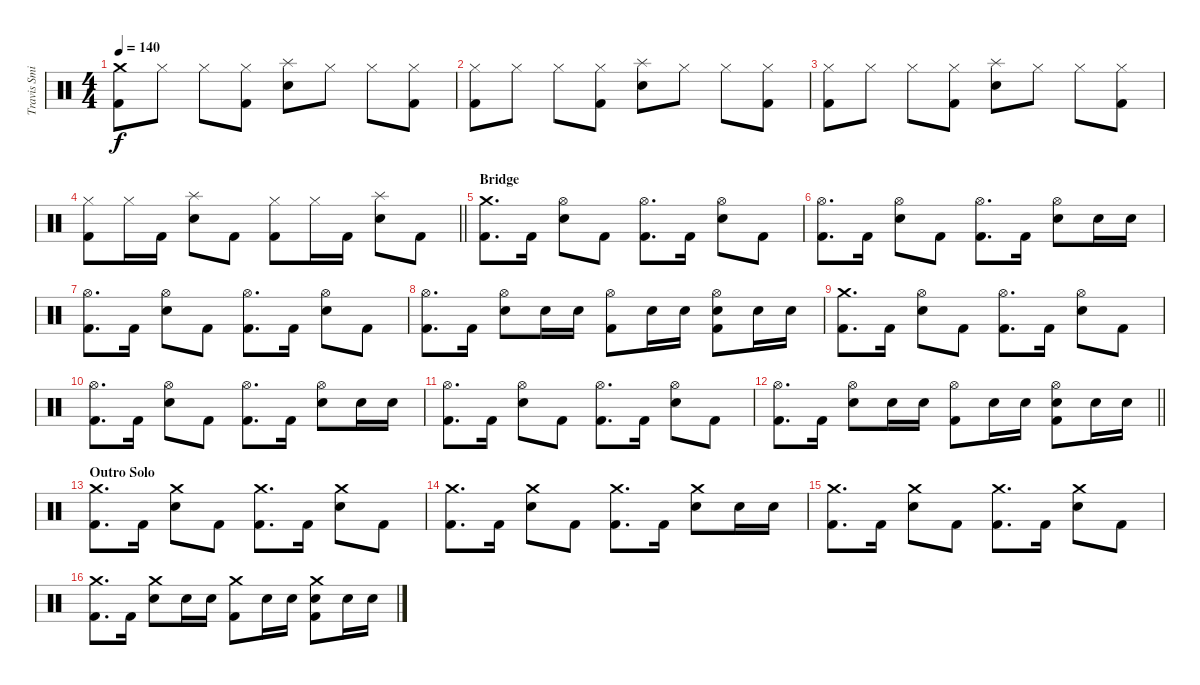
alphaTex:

\track ("Travis Smith" "Travis Smi") {instrument percussion}
\staff {score}
\articulation defaults
\ts (4 4)
\tempo 140
\clef neutral
\ks c
("Crash medium (hit)" "Kick (hit) 2").8{dy f} "Hi-Hat (closed)".8 "Hi-Hat (closed)".8 ("Hi-Hat (closed)" "Kick (hit) 2").8 ("Splash (hit)" "Electric Snare (hit)").8 "Hi-Hat (closed)".8 "Hi-Hat (closed)".8 ("Hi-Hat (closed)" "Kick (hit) 2").8 |
("Hi-Hat (closed)" "Kick (hit) 2").8 "Hi-Hat (closed)".8 "Hi-Hat (closed)".8 ("Hi-Hat (closed)" "Kick (hit) 2").8 ("Splash (hit)" "Electric Snare (hit)").8 "Hi-Hat (closed)".8 "Hi-Hat (closed)".8 ("Hi-Hat (closed)" "Kick (hit) 2").8 |
("Hi-Hat (closed)" "Kick (hit) 2").8 "Hi-Hat (closed)".8 "Hi-Hat (closed)".8 ("Hi-Hat (closed)" "Kick (hit) 2").8 ("Splash (hit)" "Electric Snare (hit)").8 "Hi-Hat (closed)".8 "Hi-Hat (closed)".8 ("Hi-Hat (closed)" "Kick (hit) 2").8 |
\barLineRight lightlight
("Hi-Hat (closed)" "Kick (hit) 2").8 "Hi-Hat (closed)".16 "Kick (hit) 2".16 ("Splash (hit)" "Electric Snare (hit)").8 "Kick (hit) 2".8 ("Hi-Hat (closed)" "Kick (hit) 2").8 "Hi-Hat (closed)".16 "Kick (hit) 2".16 ("Splash (hit)" "Electric Snare (hit)").8 "Kick (hit) 2".8 |
\section ("" "Bridge")
("Crash medium (hit)" "Kick (hit) 2").8{d} "Kick (hit) 2".16 ("Hi-Hat (open)" "Electric Snare (hit)").8 "Kick (hit) 2".8 ("Hi-Hat (open)" "Kick (hit) 2").8{d} "Kick (hit) 2".16 ("Hi-Hat (open)" "Electric Snare (hit)").8 "Kick (hit) 2".8 |
("Hi-Hat (open)" "Kick (hit) 2").8{d} "Kick (hit) 2".16 ("Hi-Hat (open)" "Electric Snare (hit)").8 "Kick (hit) 2".8 ("Hi-Hat (open)" "Kick (hit) 2").8{d} "Kick (hit) 2".16 ("Hi-Hat (open)" "Electric Snare (hit)").8 "Electric Snare (hit)".16 "Electric Snare (hit)".16 |
("Hi-Hat (open)" "Kick (hit) 2").8{d} "Kick (hit) 2".16 ("Hi-Hat (open)" "Electric Snare (hit)").8 "Kick (hit) 2".8 ("Hi-Hat (open)" "Kick (hit) 2").8{d} "Kick (hit) 2".16 ("Hi-Hat (open)" "Electric Snare (hit)").8 "Kick (hit) 2".8 |
("Hi-Hat (open)" "Kick (hit) 2").8{d} "Kick (hit) 2".16 ("Hi-Hat (open)" "Electric Snare (hit)").8 "Electric Snare (hit)".16 "Electric Snare (hit)".16 ("Hi-Hat (open)" "Kick (hit) 2").8 "Electric Snare (hit)".16 "Electric Snare (hit)".16 ("Hi-Hat (open)" "Electric Snare (hit)" "Kick (hit) 2").8 "Electric Snare (hit)".16 "Electric Snare (hit)".16 |
("Crash medium (hit)" "Kick (hit) 2").8{d} "Kick (hit) 2".16 ("Hi-Hat (open)" "Electric Snare (hit)").8 "Kick (hit) 2".8 ("Hi-Hat (open)" "Kick (hit) 2").8{d} "Kick (hit) 2".16 ("Hi-Hat (open)" "Electric Snare (hit)").8 "Kick (hit) 2".8 |
("Hi-Hat (open)" "Kick (hit) 2").8{d} "Kick (hit) 2".16 ("Hi-Hat (open)" "Electric Snare (hit)").8 "Kick (hit) 2".8 ("Hi-Hat (open)" "Kick (hit) 2").8{d} "Kick (hit) 2".16 ("Hi-Hat (open)" "Electric Snare (hit)").8 "Electric Snare (hit)".16 "Electric Snare (hit)".16 |
("Hi-Hat (open)" "Kick (hit) 2").8{d} "Kick (hit) 2".16 ("Hi-Hat (open)" "Electric Snare (hit)").8 "Kick (hit) 2".8 ("Hi-Hat (open)" "Kick (hit) 2").8{d} "Kick (hit) 2".16 ("Hi-Hat (open)" "Electric Snare (hit)").8 "Kick (hit) 2".8 |
\barLineRight lightlight
("Hi-Hat (open)" "Kick (hit) 2").8{d} "Kick (hit) 2".16 ("Hi-Hat (open)" "Electric Snare (hit)").8 "Electric Snare (hit)".16 "Electric Snare (hit)".16 ("Hi-Hat (open)" "Kick (hit) 2").8 "Electric Snare (hit)".16 "Electric Snare (hit)".16 ("Hi-Hat (open)" "Electric Snare (hit)" "Kick (hit) 2").8 "Electric Snare (hit)".16 "Electric Snare (hit)".16 |
\section ("" "Outro Solo")
("Crash medium (hit)" "Kick (hit) 2").8{d} "Kick (hit) 2".16 ("Crash medium (hit)" "Electric Snare (hit)").8 "Kick (hit) 2".8 ("Crash medium (hit)" "Kick (hit) 2").8{d} "Kick (hit) 2".16 ("Crash medium (hit)" "Electric Snare (hit)").8 "Kick (hit) 2".8 |
("Crash medium (hit)" "Kick (hit) 2").8{d} "Kick (hit) 2".16 ("Crash medium (hit)" "Electric Snare (hit)").8 "Kick (hit) 2".8 ("Crash medium (hit)" "Kick (hit) 2").8{d} "Kick (hit) 2".16 ("Crash medium (hit)" "Electric Snare (hit)").8 "Electric Snare (hit)".16 "Electric Snare (hit)".16 |
("Crash medium (hit)" "Kick (hit) 2").8{d} "Kick (hit) 2".16 ("Crash medium (hit)" "Electric Snare (hit)").8 "Kick (hit) 2".8 ("Crash medium (hit)" "Kick (hit) 2").8{d} "Kick (hit) 2".16 ("Crash medium (hit)" "Electric Snare (hit)").8 "Kick (hit) 2".8 |
("Crash medium (hit)" "Kick (hit) 2").8{d} "Kick (hit) 2".16 ("Crash medium (hit)" "Electric Snare (hit)").8 "Electric Snare (hit)".16 "Electric Snare (hit)".16 ("Crash medium (hit)" "Kick (hit) 2").8 "Electric Snare (hit)".16 "Electric Snare (hit)".16 ("Crash medium (hit)" "Electric Snare (hit)" "Kick (hit) 2").8 "Electric Snare (hit)".16 "Electric Snare (hit)".16
